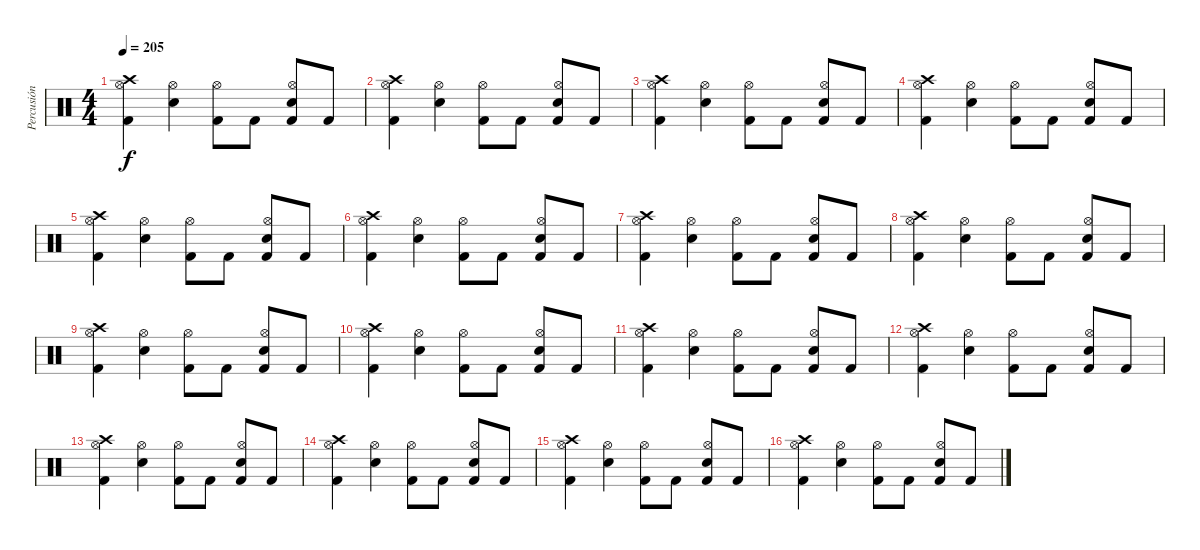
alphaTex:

\track ("Percusión" "Percusión") {instrument percussion}
\staff {score}
\articulation defaults
\ts (4 4)
\tempo 205
\clef neutral
\ks c
("Crash high (hit)" "Kick (hit) 2" "Hi-Hat (open)").4{dy f} ("Snare (hit) 2" "Hi-Hat (open)").4 ("Kick (hit) 2" "Hi-Hat (open)").8 "Kick (hit) 2".8 ("Snare (hit) 2" "Kick (hit) 2" "Hi-Hat (open)").8 "Kick (hit) 2".8 |
("Crash high (hit)" "Kick (hit) 2" "Hi-Hat (open)").4 ("Snare (hit) 2" "Hi-Hat (open)").4 ("Kick (hit) 2" "Hi-Hat (open)").8 "Kick (hit) 2".8 ("Snare (hit) 2" "Kick (hit) 2" "Hi-Hat (open)").8 "Kick (hit) 2".8 |
("Crash high (hit)" "Kick (hit) 2" "Hi-Hat (open)").4 ("Snare (hit) 2" "Hi-Hat (open)").4 ("Kick (hit) 2" "Hi-Hat (open)").8 "Kick (hit) 2".8 ("Snare (hit) 2" "Kick (hit) 2" "Hi-Hat (open)").8 "Kick (hit) 2".8 |
("Crash high (hit)" "Kick (hit) 2" "Hi-Hat (open)").4 ("Snare (hit) 2" "Hi-Hat (open)").4 ("Kick (hit) 2" "Hi-Hat (open)").8 "Kick (hit) 2".8 ("Snare (hit) 2" "Kick (hit) 2" "Hi-Hat (open)").8 "Kick (hit) 2".8 |
("Crash high (hit)" "Kick (hit) 2" "Hi-Hat (open)").4 ("Snare (hit) 2" "Hi-Hat (open)").4 ("Kick (hit) 2" "Hi-Hat (open)").8 "Kick (hit) 2".8 ("Snare (hit) 2" "Kick (hit) 2" "Hi-Hat (open)").8 "Kick (hit) 2".8 |
("Crash high (hit)" "Kick (hit) 2" "Hi-Hat (open)").4 ("Snare (hit) 2" "Hi-Hat (open)").4 ("Kick (hit) 2" "Hi-Hat (open)").8 "Kick (hit) 2".8 ("Snare (hit) 2" "Kick (hit) 2" "Hi-Hat (open)").8 "Kick (hit) 2".8 |
("Crash high (hit)" "Kick (hit) 2" "Hi-Hat (open)").4 ("Snare (hit) 2" "Hi-Hat (open)").4 ("Kick (hit) 2" "Hi-Hat (open)").8 "Kick (hit) 2".8 ("Snare (hit) 2" "Kick (hit) 2" "Hi-Hat (open)").8 "Kick (hit) 2".8 |
("Crash high (hit)" "Kick (hit) 2" "Hi-Hat (open)").4 ("Snare (hit) 2" "Hi-Hat (open)").4 ("Kick (hit) 2" "Hi-Hat (open)").8 "Kick (hit) 2".8 ("Snare (hit) 2" "Kick (hit) 2" "Hi-Hat (open)").8 "Kick (hit) 2".8 |
("Crash high (hit)" "Kick (hit) 2" "Hi-Hat (open)").4 ("Snare (hit) 2" "Hi-Hat (open)").4 ("Kick (hit) 2" "Hi-Hat (open)").8 "Kick (hit) 2".8 ("Snare (hit) 2" "Kick (hit) 2" "Hi-Hat (open)").8 "Kick (hit) 2".8 |
("Crash high (hit)" "Kick (hit) 2" "Hi-Hat (open)").4 ("Snare (hit) 2" "Hi-Hat (open)").4 ("Kick (hit) 2" "Hi-Hat (open)").8 "Kick (hit) 2".8 ("Snare (hit) 2" "Kick (hit) 2" "Hi-Hat (open)").8 "Kick (hit) 2".8 |
("Crash high (hit)" "Kick (hit) 2" "Hi-Hat (open)").4 ("Snare (hit) 2" "Hi-Hat (open)").4 ("Kick (hit) 2" "Hi-Hat (open)").8 "Kick (hit) 2".8 ("Snare (hit) 2" "Kick (hit) 2" "Hi-Hat (open)").8 "Kick (hit) 2".8 |
("Crash high (hit)" "Kick (hit) 2" "Hi-Hat (open)").4 ("Snare (hit) 2" "Hi-Hat (open)").4 ("Kick (hit) 2" "Hi-Hat (open)").8 "Kick (hit) 2".8 ("Snare (hit) 2" "Kick (hit) 2" "Hi-Hat (open)").8 "Kick (hit) 2".8 |
("Crash high (hit)" "Kick (hit) 2" "Hi-Hat (open)").4 ("Snare (hit) 2" "Hi-Hat (open)").4 ("Kick (hit) 2" "Hi-Hat (open)").8 "Kick (hit) 2".8 ("Snare (hit) 2" "Kick (hit) 2" "Hi-Hat (open)").8 "Kick (hit) 2".8 |
("Crash high (hit)" "Kick (hit) 2" "Hi-Hat (open)").4 ("Snare (hit) 2" "Hi-Hat (open)").4 ("Kick (hit) 2" "Hi-Hat (open)").8 "Kick (hit) 2".8 ("Snare (hit) 2" "Kick (hit) 2" "Hi-Hat (open)").8 "Kick (hit) 2".8 |
("Crash high (hit)" "Kick (hit) 2" "Hi-Hat (open)").4 ("Snare (hit) 2" "Hi-Hat (open)").4 ("Kick (hit) 2" "Hi-Hat (open)").8 "Kick (hit) 2".8 ("Snare (hit) 2" "Kick (hit) 2" "Hi-Hat (open)").8 "Kick (hit) 2".8 |
("Crash high (hit)" "Kick (hit) 2" "Hi-Hat (open)").4 ("Snare (hit) 2" "Hi-Hat (open)").4 ("Kick (hit) 2" "Hi-Hat (open)").8 "Kick (hit) 2".8 ("Snare (hit) 2" "Kick (hit) 2" "Hi-Hat (open)").8 "Kick (hit) 2".8
